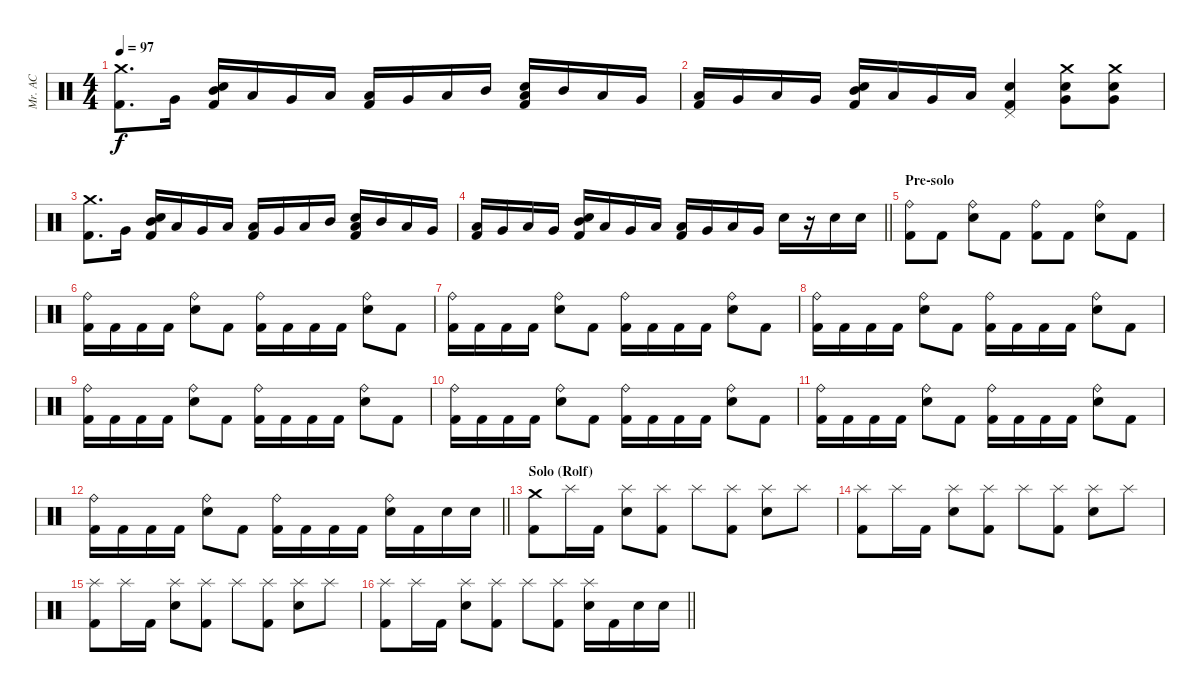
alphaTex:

\track ("Mr. AC" "Mr. AC") {instrument percussion}
\staff {score}
\articulation defaults
\ts (4 4)
\tempo 97
\clef neutral
\ks c
("Crash medium (hit)" "Kick (hit) 2").8{d dy f} "Very Low Tom (hit)".16 ("Snare (hit) 2" "Mid Tom (hit)" "Kick (hit) 2").16 "Low Floor Tom (hit)".16 "Very Low Tom (hit)".16 "Low Tom (hit)".16 ("Low Floor Tom (hit)" "Kick (hit) 2").16 "Very Low Tom (hit)".16 "Low Tom (hit)".16 "Mid Tom (hit)".16 ("Snare (hit) 2" "Low Tom (hit)" "Kick (hit) 2").16 "Mid Tom (hit)".16 "Low Tom (hit)".16 "Very Low Tom (hit)".16 |
("Low Floor Tom (hit)" "Kick (hit) 2").16 "Very Low Tom (hit)".16 "Low Tom (hit)".16 "Very Low Tom (hit)".16 ("Snare (hit) 2" "Mid Tom (hit)" "Kick (hit) 2").16 "Low Tom (hit)".16 "Very Low Tom (hit)".16 "Low Tom (hit)".16 ("Pedal Hi-Hat (hit)" "Snare (hit) 2" "Kick (hit) 2").4 ("Crash medium (hit)" "Very Low Tom (hit)" "Snare (hit) 2").8 ("Crash medium (hit)" "Very Low Tom (hit)" "Snare (hit) 2").8 |
("Crash medium (hit)" "Kick (hit) 2").8{d} "Very Low Tom (hit)".16 ("Snare (hit) 2" "Mid Tom (hit)" "Kick (hit) 2").16 "Low Floor Tom (hit)".16 "Very Low Tom (hit)".16 "Low Tom (hit)".16 ("Low Floor Tom (hit)" "Kick (hit) 2").16 "Very Low Tom (hit)".16 "Low Tom (hit)".16 "Mid Tom (hit)".16 ("Snare (hit) 2" "Low Tom (hit)" "Kick (hit) 2").16 "Mid Tom (hit)".16 "Low Tom (hit)".16 "Very Low Tom (hit)".16 |
\barLineRight lightlight
("Low Floor Tom (hit)" "Kick (hit) 2").16 "Very Low Tom (hit)".16 "Low Tom (hit)".16 "Very Low Tom (hit)".16 ("Snare (hit) 2" "Mid Tom (hit)" "Kick (hit) 2").16 "Low Tom (hit)".16 "Very Low Tom (hit)".16 "Low Tom (hit)".16 ("Low Floor Tom (hit)" "Kick (hit) 2").16 "Very Low Tom (hit)".16 "Low Tom (hit)".16 "Very Low Tom (hit)".16 "Snare (hit) 2".16 r.16 "Snare (hit) 2".16 "Snare (hit) 2".16 |
\section ("" "Pre-solo")
("Ride (bell)" "Kick (hit) 2").8 "Kick (hit) 2".8 ("Ride (bell)" "Snare (hit) 2").8 "Kick (hit) 2".8 ("Ride (bell)" "Kick (hit) 2").8 "Kick (hit) 2".8 ("Ride (bell)" "Snare (hit) 2").8 "Kick (hit) 2".8 |
("Ride (bell)" "Kick (hit) 2").16 "Kick (hit) 2".16 "Kick (hit) 2".16 "Kick (hit) 2".16 ("Ride (bell)" "Snare (hit) 2").8 "Kick (hit) 2".8 ("Ride (bell)" "Kick (hit) 2").16 "Kick (hit) 2".16 "Kick (hit) 2".16 "Kick (hit) 2".16 ("Ride (bell)" "Snare (hit) 2").8 "Kick (hit) 2".8 |
("Ride (bell)" "Kick (hit) 2").16 "Kick (hit) 2".16 "Kick (hit) 2".16 "Kick (hit) 2".16 ("Ride (bell)" "Snare (hit) 2").8 "Kick (hit) 2".8 ("Ride (bell)" "Kick (hit) 2").16 "Kick (hit) 2".16 "Kick (hit) 2".16 "Kick (hit) 2".16 ("Ride (bell)" "Snare (hit) 2").8 "Kick (hit) 2".8 |
("Ride (bell)" "Kick (hit) 2").16 "Kick (hit) 2".16 "Kick (hit) 2".16 "Kick (hit) 2".16 ("Ride (bell)" "Snare (hit) 2").8 "Kick (hit) 2".8 ("Ride (bell)" "Kick (hit) 2").16 "Kick (hit) 2".16 "Kick (hit) 2".16 "Kick (hit) 2".16 ("Ride (bell)" "Snare (hit) 2").8 "Kick (hit) 2".8 |
("Ride (bell)" "Kick (hit) 2").16 "Kick (hit) 2".16 "Kick (hit) 2".16 "Kick (hit) 2".16 ("Ride (bell)" "Snare (hit) 2").8 "Kick (hit) 2".8 ("Ride (bell)" "Kick (hit) 2").16 "Kick (hit) 2".16 "Kick (hit) 2".16 "Kick (hit) 2".16 ("Ride (bell)" "Snare (hit) 2").8 "Kick (hit) 2".8 |
("Ride (bell)" "Kick (hit) 2").16 "Kick (hit) 2".16 "Kick (hit) 2".16 "Kick (hit) 2".16 ("Ride (bell)" "Snare (hit) 2").8 "Kick (hit) 2".8 ("Ride (bell)" "Kick (hit) 2").16 "Kick (hit) 2".16 "Kick (hit) 2".16 "Kick (hit) 2".16 ("Ride (bell)" "Snare (hit) 2").8 "Kick (hit) 2".8 |
("Ride (bell)" "Kick (hit) 2").16 "Kick (hit) 2".16 "Kick (hit) 2".16 "Kick (hit) 2".16 ("Ride (bell)" "Snare (hit) 2").8 "Kick (hit) 2".8 ("Ride (bell)" "Kick (hit) 2").16 "Kick (hit) 2".16 "Kick (hit) 2".16 "Kick (hit) 2".16 ("Ride (bell)" "Snare (hit) 2").8 "Kick (hit) 2".8 |
\barLineRight lightlight
("Ride (bell)" "Kick (hit) 2").16 "Kick (hit) 2".16 "Kick (hit) 2".16 "Kick (hit) 2".16 ("Ride (bell)" "Snare (hit) 2").8 "Kick (hit) 2".8 ("Ride (bell)" "Kick (hit) 2").16 "Kick (hit) 2".16 "Kick (hit) 2".16 "Kick (hit) 2".16 ("Ride (bell)" "Snare (hit) 2").16 "Kick (hit) 2".16 "Snare (hit) 2".16 "Snare (hit) 2".16 |
\section ("" "Solo (Rolf)")
("Crash medium (hit)" "Kick (hit) 2").8 "Splash (hit)".16 "Kick (hit) 2".16 ("Splash (hit)" "Snare (hit) 2").8 ("Splash (hit)" "Kick (hit) 2").8 "Splash (hit)".8 ("Splash (hit)" "Kick (hit) 2").8 ("Splash (hit)" "Snare (hit) 2").8 "Splash (hit)".8 |
("Splash (hit)" "Kick (hit) 2").8 "Splash (hit)".16 "Kick (hit) 2".16 ("Splash (hit)" "Snare (hit) 2").8 ("Splash (hit)" "Kick (hit) 2").8 "Splash (hit)".8 ("Splash (hit)" "Kick (hit) 2").8 ("Splash (hit)" "Snare (hit) 2").8 "Splash (hit)".8 |
("Splash (hit)" "Kick (hit) 2").8 "Splash (hit)".16 "Kick (hit) 2".16 ("Splash (hit)" "Snare (hit) 2").8 ("Splash (hit)" "Kick (hit) 2").8 "Splash (hit)".8 ("Splash (hit)" "Kick (hit) 2").8 ("Splash (hit)" "Snare (hit) 2").8 "Splash (hit)".8 |
\barLineRight lightlight
("Splash (hit)" "Kick (hit) 2").8 "Splash (hit)".16 "Kick (hit) 2".16 ("Splash (hit)" "Snare (hit) 2").8 ("Splash (hit)" "Kick (hit) 2").8 "Splash (hit)".8 ("Splash (hit)" "Kick (hit) 2").8 ("Splash (hit)" "Snare (hit) 2").16 "Kick (hit) 2".16 "Snare (hit) 2".16 "Snare (hit) 2".16
